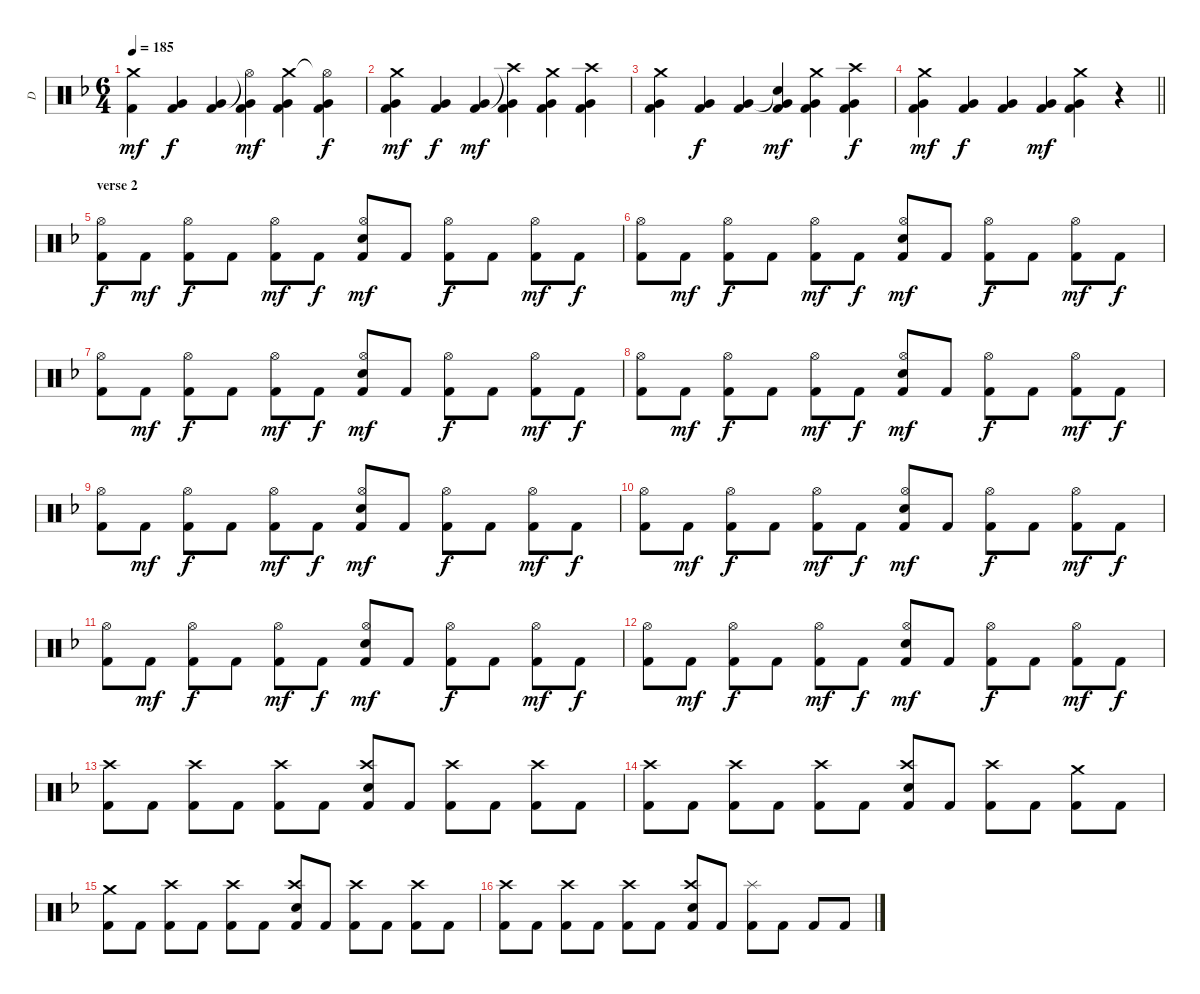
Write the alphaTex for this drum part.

\track ("D" "D") {instrument percussion}
\staff {score}
\articulation defaults
\ts (6 4)
\tempo 185
\clef neutral
\ks dminor
("Crash medium (hit)" "Kick (hit) 2").4{dy mf} ("Very Low Tom (hit)" "Kick (hit) 2").4{dy f} ("Very Low Tom (hit)" "Kick (hit) 2").4 ("Hi-Hat (open)"{t} "Very Low Tom (hit)" "Kick (hit) 2").4{dy mf} ("Crash medium (hit)" "Very Low Tom (hit)" "Kick (hit) 2").4 ("Hi-Hat (open)"{t} "Very Low Tom (hit)" "Kick (hit) 2").4{dy f} |
("Crash medium (hit)" "Very Low Tom (hit)" "Kick (hit) 2").4{dy mf} ("Very Low Tom (hit)" "Kick (hit) 2").4{dy f} ("Very Low Tom (hit)" "Kick (hit) 2").4{dy mf} ("Crash high (hit)"{t} "Very Low Tom (hit)" "Kick (hit) 2").4 ("Crash medium (hit)" "Very Low Tom (hit)" "Kick (hit) 2").4 ("Crash high (hit)" "Very Low Tom (hit)" "Kick (hit) 2").4 |
("Crash medium (hit)" "Very Low Tom (hit)" "Kick (hit) 2").4 ("Very Low Tom (hit)" "Kick (hit) 2").4{dy f} ("Very Low Tom (hit)" "Kick (hit) 2").4 ("Snare (hit)"{t} "Very Low Tom (hit)" "Kick (hit) 2").4{dy mf} ("Crash medium (hit)" "Very Low Tom (hit)" "Kick (hit) 2").4 ("Crash high (hit)" "Very Low Tom (hit)" "Kick (hit) 2").4{dy f} |
\barLineRight lightlight
("Crash medium (hit)" "Very Low Tom (hit)" "Kick (hit) 2").4{dy mf} ("Very Low Tom (hit)" "Kick (hit) 2").4{dy f} ("Very Low Tom (hit)" "Kick (hit) 2").4 ("Very Low Tom (hit)" "Kick (hit) 2").4{dy mf} ("Crash medium (hit)" "Very Low Tom (hit)" "Kick (hit) 2").4 r.4 |
\section ("" "verse 2")
("Hi-Hat (open)" "Kick (hit) 2").8{dy f} "Kick (hit) 2".8{dy mf} ("Hi-Hat (open)" "Kick (hit) 2").8{dy f} "Kick (hit) 2".8 ("Hi-Hat (open)" "Kick (hit) 2").8{dy mf} "Kick (hit) 2".8{dy f} ("Hi-Hat (open)" "Snare (hit) 2" "Kick (hit) 2").8{dy mf} "Kick (hit) 2".8 ("Hi-Hat (open)" "Kick (hit) 2").8{dy f} "Kick (hit) 2".8 ("Hi-Hat (open)" "Kick (hit) 2").8{dy mf} "Kick (hit) 2".8{dy f} |
("Hi-Hat (open)" "Kick (hit) 2").8 "Kick (hit) 2".8{dy mf} ("Hi-Hat (open)" "Kick (hit) 2").8{dy f} "Kick (hit) 2".8 ("Hi-Hat (open)" "Kick (hit) 2").8{dy mf} "Kick (hit) 2".8{dy f} ("Hi-Hat (open)" "Snare (hit) 2" "Kick (hit) 2").8{dy mf} "Kick (hit) 2".8 ("Hi-Hat (open)" "Kick (hit) 2").8{dy f} "Kick (hit) 2".8 ("Hi-Hat (open)" "Kick (hit) 2").8{dy mf} "Kick (hit) 2".8{dy f} |
("Hi-Hat (open)" "Kick (hit) 2").8 "Kick (hit) 2".8{dy mf} ("Hi-Hat (open)" "Kick (hit) 2").8{dy f} "Kick (hit) 2".8 ("Hi-Hat (open)" "Kick (hit) 2").8{dy mf} "Kick (hit) 2".8{dy f} ("Hi-Hat (open)" "Snare (hit) 2" "Kick (hit) 2").8{dy mf} "Kick (hit) 2".8 ("Hi-Hat (open)" "Kick (hit) 2").8{dy f} "Kick (hit) 2".8 ("Hi-Hat (open)" "Kick (hit) 2").8{dy mf} "Kick (hit) 2".8{dy f} |
("Hi-Hat (open)" "Kick (hit) 2").8 "Kick (hit) 2".8{dy mf} ("Hi-Hat (open)" "Kick (hit) 2").8{dy f} "Kick (hit) 2".8 ("Hi-Hat (open)" "Kick (hit) 2").8{dy mf} "Kick (hit) 2".8{dy f} ("Hi-Hat (open)" "Snare (hit) 2" "Kick (hit) 2").8{dy mf} "Kick (hit) 2".8 ("Hi-Hat (open)" "Kick (hit) 2").8{dy f} "Kick (hit) 2".8 ("Hi-Hat (open)" "Kick (hit) 2").8{dy mf} "Kick (hit) 2".8{dy f} |
("Hi-Hat (open)" "Kick (hit) 2").8 "Kick (hit) 2".8{dy mf} ("Hi-Hat (open)" "Kick (hit) 2").8{dy f} "Kick (hit) 2".8 ("Hi-Hat (open)" "Kick (hit) 2").8{dy mf} "Kick (hit) 2".8{dy f} ("Hi-Hat (open)" "Snare (hit) 2" "Kick (hit) 2").8{dy mf} "Kick (hit) 2".8 ("Hi-Hat (open)" "Kick (hit) 2").8{dy f} "Kick (hit) 2".8 ("Hi-Hat (open)" "Kick (hit) 2").8{dy mf} "Kick (hit) 2".8{dy f} |
("Hi-Hat (open)" "Kick (hit) 2").8 "Kick (hit) 2".8{dy mf} ("Hi-Hat (open)" "Kick (hit) 2").8{dy f} "Kick (hit) 2".8 ("Hi-Hat (open)" "Kick (hit) 2").8{dy mf} "Kick (hit) 2".8{dy f} ("Hi-Hat (open)" "Snare (hit) 2" "Kick (hit) 2").8{dy mf} "Kick (hit) 2".8 ("Hi-Hat (open)" "Kick (hit) 2").8{dy f} "Kick (hit) 2".8 ("Hi-Hat (open)" "Kick (hit) 2").8{dy mf} "Kick (hit) 2".8{dy f} |
("Hi-Hat (open)" "Kick (hit) 2").8 "Kick (hit) 2".8{dy mf} ("Hi-Hat (open)" "Kick (hit) 2").8{dy f} "Kick (hit) 2".8 ("Hi-Hat (open)" "Kick (hit) 2").8{dy mf} "Kick (hit) 2".8{dy f} ("Hi-Hat (open)" "Snare (hit) 2" "Kick (hit) 2").8{dy mf} "Kick (hit) 2".8 ("Hi-Hat (open)" "Kick (hit) 2").8{dy f} "Kick (hit) 2".8 ("Hi-Hat (open)" "Kick (hit) 2").8{dy mf} "Kick (hit) 2".8{dy f} |
("Hi-Hat (open)" "Kick (hit) 2").8 "Kick (hit) 2".8{dy mf} ("Hi-Hat (open)" "Kick (hit) 2").8{dy f} "Kick (hit) 2".8 ("Hi-Hat (open)" "Kick (hit) 2").8{dy mf} "Kick (hit) 2".8{dy f} ("Hi-Hat (open)" "Snare (hit) 2" "Kick (hit) 2").8{dy mf} "Kick (hit) 2".8 ("Hi-Hat (open)" "Kick (hit) 2").8{dy f} "Kick (hit) 2".8 ("Hi-Hat (open)" "Kick (hit) 2").8{dy mf} "Kick (hit) 2".8{dy f} |
("Crash high (hit)" "Kick (hit) 2").8 "Kick (hit) 2".8 ("Crash high (hit)" "Kick (hit) 2").8 "Kick (hit) 2".8 ("Crash high (hit)" "Kick (hit) 2").8 "Kick (hit) 2".8 ("Crash high (hit)" "Snare (hit) 2" "Kick (hit) 2").8 "Kick (hit) 2".8 ("Crash high (hit)" "Kick (hit) 2").8 "Kick (hit) 2".8 ("Crash high (hit)" "Kick (hit) 2").8 "Kick (hit) 2".8 |
("Crash high (hit)" "Kick (hit) 2").8 "Kick (hit) 2".8 ("Crash high (hit)" "Kick (hit) 2").8 "Kick (hit) 2".8 ("Crash high (hit)" "Kick (hit) 2").8 "Kick (hit) 2".8 ("Crash high (hit)" "Snare (hit) 2" "Kick (hit) 2").8 "Kick (hit) 2".8 ("Crash high (hit)" "Kick (hit) 2").8 "Kick (hit) 2".8 ("Crash medium (hit)" "Kick (hit) 2").8 "Kick (hit) 2".8 |
("Crash medium (hit)" "Kick (hit) 2").8 "Kick (hit) 2".8 ("Crash high (hit)" "Kick (hit) 2").8 "Kick (hit) 2".8 ("Crash high (hit)" "Kick (hit) 2").8 "Kick (hit) 2".8 ("Crash high (hit)" "Snare (hit) 2" "Kick (hit) 2").8 "Kick (hit) 2".8 ("Crash high (hit)" "Kick (hit) 2").8 "Kick (hit) 2".8 ("Crash high (hit)" "Kick (hit) 2").8 "Kick (hit) 2".8 |
("Crash high (hit)" "Kick (hit) 2").8 "Kick (hit) 2".8 ("Crash high (hit)" "Kick (hit) 2").8 "Kick (hit) 2".8 ("Crash high (hit)" "Kick (hit) 2").8 "Kick (hit) 2".8 ("Crash high (hit)" "Snare (hit) 2" "Kick (hit) 2").8 "Kick (hit) 2".8 ("Splash (hit)" "Kick (hit) 2").8 "Kick (hit) 2".8 "Kick (hit) 2".8 "Kick (hit) 2".8
